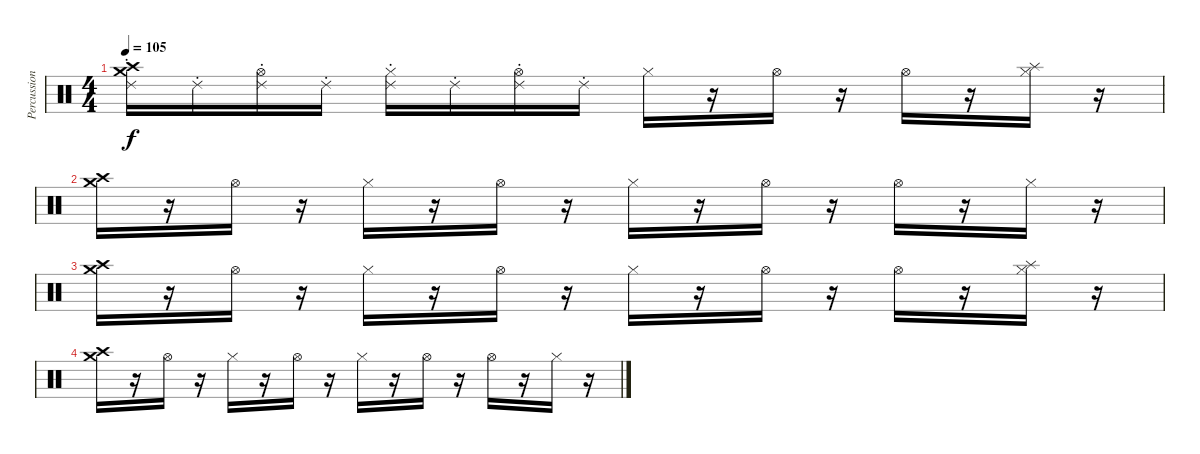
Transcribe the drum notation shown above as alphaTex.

\track ("Percussions+(scratchs Dj ombre)" "Percussion") {instrument percussion}
\staff {score}
\articulation defaults
\ts (4 4)
\tempo 105
\clef neutral
\ks c
("Crash high (hit)" "Crash medium (hit)" "Ride (choke) 2").16{dy f} "Ride (choke) 2".16 ("Hi-Hat (open)" "Ride (choke) 2").16 "Ride (choke) 2".16 ("Hi-Hat (closed)" "Ride (choke) 2").16 "Ride (choke) 2".16 ("Hi-Hat (open)" "Ride (choke) 2").16 "Ride (choke) 2".16 "Hi-Hat (closed)".16 r.16 "Hi-Hat (open)".16 r.16 "Hi-Hat (open)".16 r.16 ("Hi-Hat (closed)" "Splash (hit)").16 r.16 |
("Crash high (hit)" "Crash medium (hit)").16 r.16 "Hi-Hat (open)".16 r.16 "Hi-Hat (closed)".16 r.16 "Hi-Hat (open)".16 r.16 "Hi-Hat (closed)".16 r.16 "Hi-Hat (open)".16 r.16 "Hi-Hat (open)".16 r.16 "Hi-Hat (closed)".16 r.16 |
("Crash high (hit)" "Crash medium (hit)").16 r.16 "Hi-Hat (open)".16 r.16 "Hi-Hat (closed)".16 r.16 "Hi-Hat (open)".16 r.16 "Hi-Hat (closed)".16 r.16 "Hi-Hat (open)".16 r.16 "Hi-Hat (open)".16 r.16 ("Hi-Hat (closed)" "Splash (hit)").16 r.16 |
("Crash high (hit)" "Crash medium (hit)").16 r.16 "Hi-Hat (open)".16 r.16 "Hi-Hat (closed)".16 r.16 "Hi-Hat (open)".16 r.16 "Hi-Hat (closed)".16 r.16 "Hi-Hat (open)".16 r.16 "Hi-Hat (open)".16 r.16 "Hi-Hat (closed)".16 r.16
